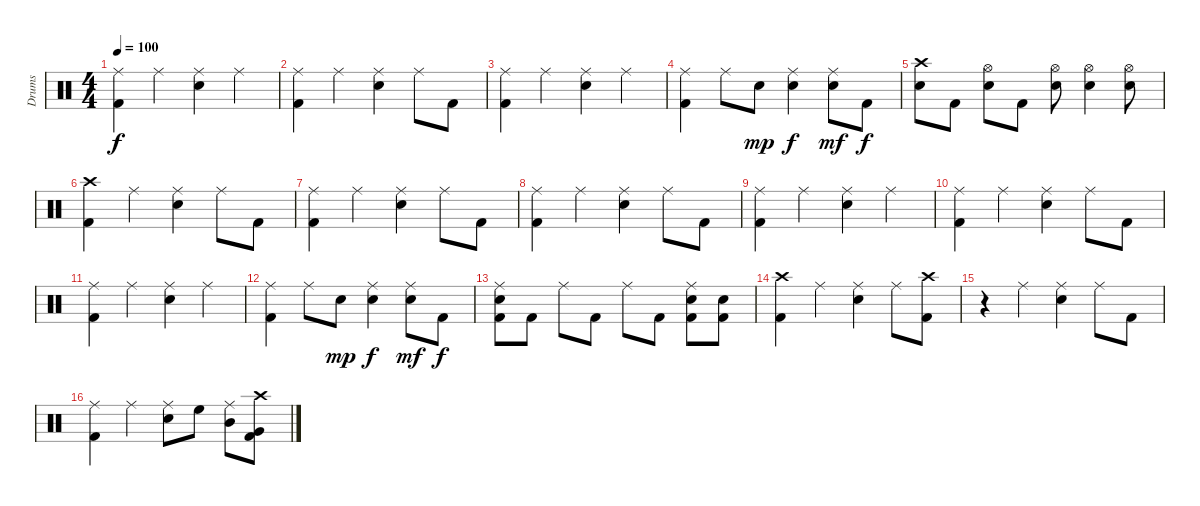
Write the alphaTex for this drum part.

\track ("Drums" "Drums") {instrument percussion}
\staff {score}
\articulation defaults
\ts (4 4)
\tempo 100
\clef neutral
\ks c
("Ride (middle)" "Kick (hit) 2").4{dy f} "Ride (middle)".4 ("Ride (middle)" "Electric Snare (hit)").4 "Ride (middle)".4 |
("Ride (middle)" "Kick (hit) 2").4 "Ride (middle)".4 ("Ride (middle)" "Electric Snare (hit)").4 "Ride (middle)".8 "Kick (hit) 2".8 |
("Ride (middle)" "Kick (hit) 2").4 "Ride (middle)".4 ("Ride (middle)" "Electric Snare (hit)").4 "Ride (middle)".4 |
("Ride (middle)" "Kick (hit) 2").4 "Ride (middle)".8 "Electric Snare (hit)".8{dy mp} ("Ride (middle)" "Electric Snare (hit)").4{dy f} ("Ride (middle)" "Electric Snare (hit)").8{dy mf} "Kick (hit) 2".8{dy f} |
("Crash high (hit)" "Electric Snare (hit)").8 "Kick (hit) 2".8 ("Hi-Hat (open)" "Electric Snare (hit)").8 "Kick (hit) 2".8 ("Hi-Hat (open)" "Electric Snare (hit)").8 ("Hi-Hat (open)" "Electric Snare (hit)").4 ("Hi-Hat (open)" "Electric Snare (hit)").8 |
("Crash high (hit)" "Kick (hit) 2").4 "Ride (middle)".4 ("Ride (middle)" "Electric Snare (hit)").4 "Ride (middle)".8 "Kick (hit) 2".8 |
("Ride (middle)" "Kick (hit) 2").4 "Ride (middle)".4 ("Ride (middle)" "Electric Snare (hit)").4 "Ride (middle)".8 "Kick (hit) 2".8 |
("Ride (middle)" "Kick (hit) 2").4 "Ride (middle)".4 ("Ride (middle)" "Electric Snare (hit)").4 "Ride (middle)".8 "Kick (hit) 2".8 |
("Ride (middle)" "Kick (hit) 2").4 "Ride (middle)".4 ("Ride (middle)" "Electric Snare (hit)").4 "Ride (middle)".4 |
("Ride (middle)" "Kick (hit) 2").4 "Ride (middle)".4 ("Ride (middle)" "Electric Snare (hit)").4 "Ride (middle)".8 "Kick (hit) 2".8 |
("Ride (middle)" "Kick (hit) 2").4 "Ride (middle)".4 ("Ride (middle)" "Electric Snare (hit)").4 "Ride (middle)".4 |
("Ride (middle)" "Kick (hit) 2").4 "Ride (middle)".8 "Electric Snare (hit)".8{dy mp} ("Ride (middle)" "Electric Snare (hit)").4{dy f} ("Ride (middle)" "Electric Snare (hit)").8{dy mf} "Kick (hit) 2".8{dy f} |
("Ride (middle)" "Electric Snare (hit)" "Kick (hit) 2").8 "Kick (hit) 2".8 "Ride (middle)".8 "Kick (hit) 2".8 "Ride (middle)".8 "Kick (hit) 2".8 ("Ride (middle)" "Electric Snare (hit)" "Kick (hit) 2").8 ("Electric Snare (hit)" "Kick (hit) 2").8 |
("Crash high (hit)" "Kick (hit) 2").4 "Ride (middle)".4 ("Ride (middle)" "Electric Snare (hit)").4 "Ride (middle)".8 ("Crash high (hit)" "Kick (hit) 2").8 |
r.4 "Ride (middle)".4 ("Ride (middle)" "Electric Snare (hit)").4 "Ride (middle)".8 "Kick (hit) 2".8 |
("Ride (middle)" "Kick (hit) 2").4 "Ride (middle)".4 ("Ride (middle)" "Electric Snare (hit)").8 "High Floor Tom (hit)".8 ("Ride (middle)" "Mid Tom (hit)").8 ("Crash high (hit)" "Very Low Tom (hit)" "Kick (hit) 2").8
